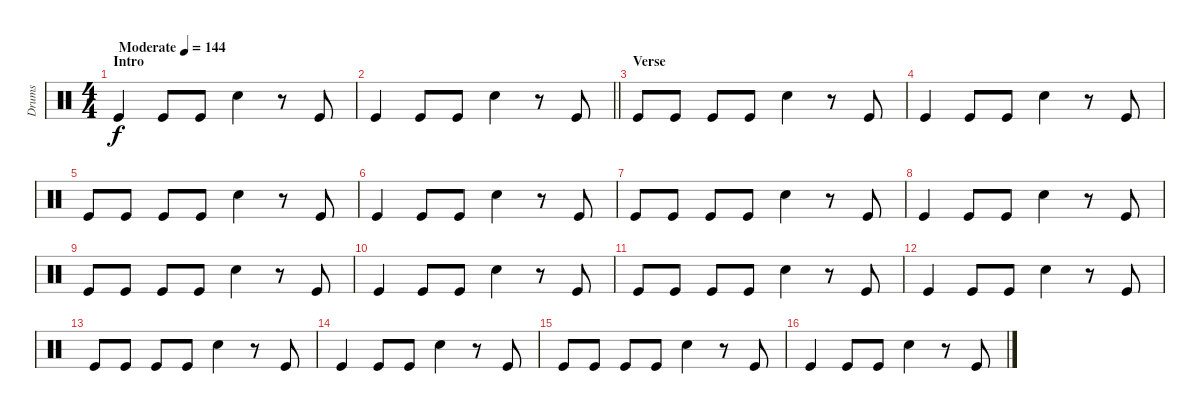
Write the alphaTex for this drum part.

\track ("Drums" "Drums") {instrument percussion}
\staff {score}
\articulation defaults
\ts (4 4)
\section ("" "Intro")
\tempo (144 "Moderate")
\clef neutral
\ks c "Kick (hit)".4{dy f} "Kick (hit)".8 "Kick (hit)".8 "Snare (hit) 2".4
r.8 "Kick (hit)".8 |
\barLineRight lightlight "Kick (hit)".4 "Kick (hit)".8 "Kick (hit)".8 "Snare (hit) 2".4
r.8 "Kick (hit)".8 |
\section ("" "Verse")
"Kick (hit)".8 "Kick (hit)".8 "Kick (hit)".8 "Kick (hit)".8 "Snare (hit) 2".4 r.8 "Kick (hit)".8 |
"Kick (hit)".4 "Kick (hit)".8 "Kick (hit)".8 "Snare (hit) 2".4 r.8 "Kick (hit)".8 |
"Kick (hit)".8 "Kick (hit)".8 "Kick (hit)".8 "Kick (hit)".8 "Snare (hit) 2".4 r.8 "Kick (hit)".8 |
"Kick (hit)".4 "Kick (hit)".8 "Kick (hit)".8 "Snare (hit) 2".4 r.8 "Kick (hit)".8 |
"Kick (hit)".8 "Kick (hit)".8 "Kick (hit)".8 "Kick (hit)".8 "Snare (hit) 2".4 r.8 "Kick (hit)".8 |
"Kick (hit)".4 "Kick (hit)".8 "Kick (hit)".8 "Snare (hit) 2".4 r.8 "Kick (hit)".8 |
"Kick (hit)".8 "Kick (hit)".8 "Kick (hit)".8 "Kick (hit)".8 "Snare (hit) 2".4 r.8 "Kick (hit)".8 |
"Kick (hit)".4 "Kick (hit)".8 "Kick (hit)".8 "Snare (hit) 2".4 r.8 "Kick (hit)".8 |
"Kick (hit)".8 "Kick (hit)".8 "Kick (hit)".8 "Kick (hit)".8 "Snare (hit) 2".4 r.8 "Kick (hit)".8 |
"Kick (hit)".4 "Kick (hit)".8 "Kick (hit)".8 "Snare (hit) 2".4 r.8 "Kick (hit)".8 |
"Kick (hit)".8 "Kick (hit)".8 "Kick (hit)".8 "Kick (hit)".8 "Snare (hit) 2".4 r.8 "Kick (hit)".8 |
"Kick (hit)".4 "Kick (hit)".8 "Kick (hit)".8 "Snare (hit) 2".4 r.8 "Kick (hit)".8 |
"Kick (hit)".8 "Kick (hit)".8 "Kick (hit)".8 "Kick (hit)".8 "Snare (hit) 2".4 r.8 "Kick (hit)".8 |
"Kick (hit)".4 "Kick (hit)".8 "Kick (hit)".8 "Snare (hit) 2".4 r.8 "Kick (hit)".8
